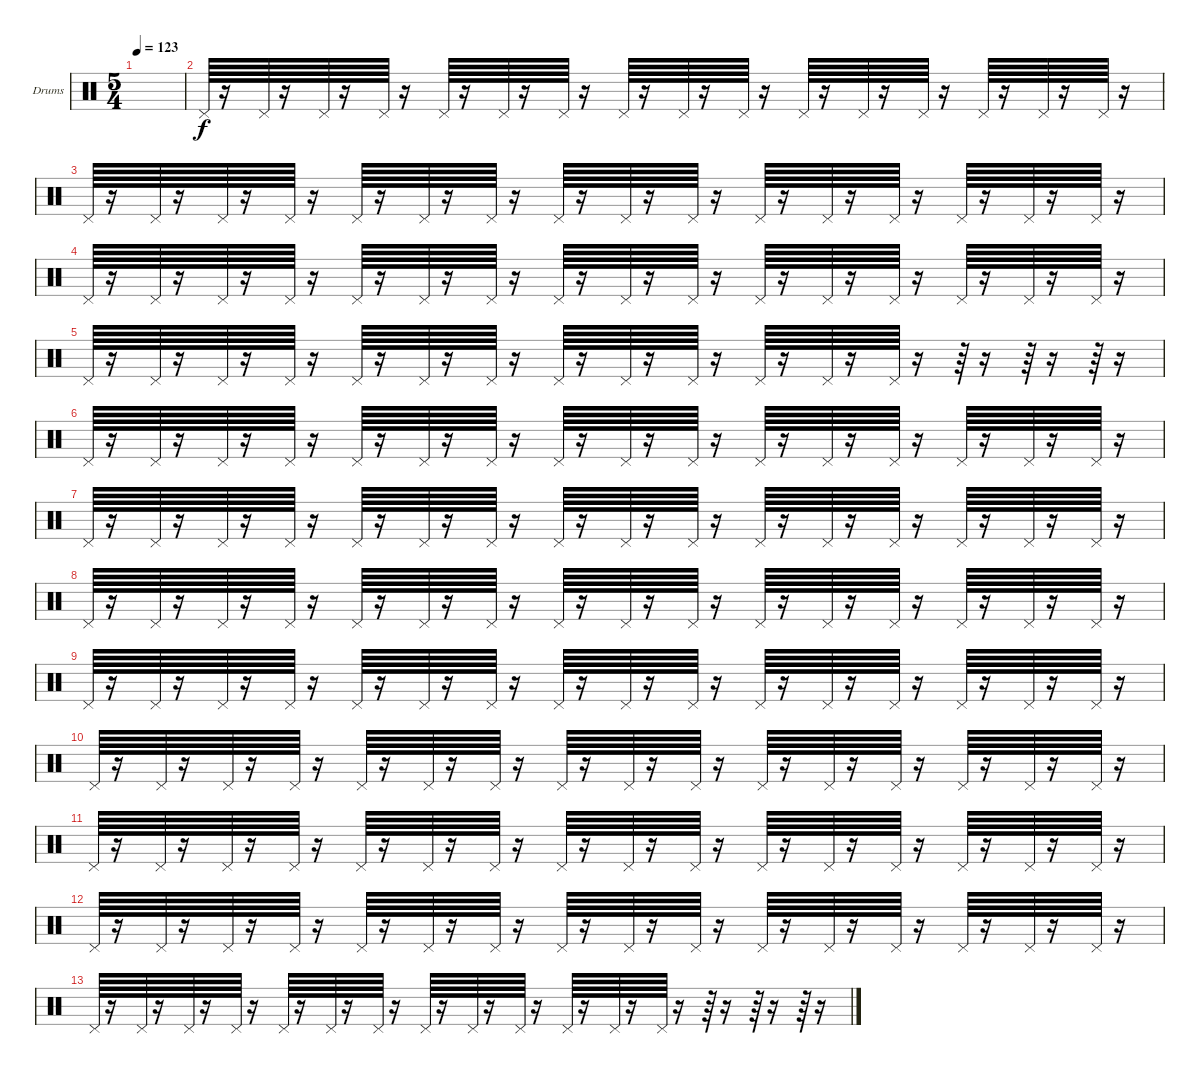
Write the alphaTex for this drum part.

\defaultSystemsLayout 4
\bracketExtendMode groupsimilarinstruments
\firstSystemTrackNameOrientation horizontal
\otherSystemsTrackNameOrientation horizontal
\track ("Drumkit" "Drums") {instrument percussion}
\staff {score}
\articulation defaults
\ts (5 4)
\tempo 123
\clef neutral
\ks c
|
"Pedal Hi-Hat (hit)".64 r.16 "Pedal Hi-Hat (hit)".64 r.16 "Pedal Hi-Hat (hit)".64 r.16 "Pedal Hi-Hat (hit)".64 r.16 "Pedal Hi-Hat (hit)".64 r.16 "Pedal Hi-Hat (hit)".64 r.16 "Pedal Hi-Hat (hit)".64 r.16 "Pedal Hi-Hat (hit)".64 r.16 "Pedal Hi-Hat (hit)".64 r.16 "Pedal Hi-Hat (hit)".64 r.16 "Pedal Hi-Hat (hit)".64 r.16 "Pedal Hi-Hat (hit)".64 r.16 "Pedal Hi-Hat (hit)".64 r.16 "Pedal Hi-Hat (hit)".64 r.16 "Pedal Hi-Hat (hit)".64 r.16 "Pedal Hi-Hat (hit)".64 r.16 |
"Pedal Hi-Hat (hit)".64 r.16 "Pedal Hi-Hat (hit)".64 r.16 "Pedal Hi-Hat (hit)".64 r.16 "Pedal Hi-Hat (hit)".64 r.16 "Pedal Hi-Hat (hit)".64 r.16 "Pedal Hi-Hat (hit)".64 r.16 "Pedal Hi-Hat (hit)".64 r.16 "Pedal Hi-Hat (hit)".64 r.16 "Pedal Hi-Hat (hit)".64 r.16 "Pedal Hi-Hat (hit)".64 r.16 "Pedal Hi-Hat (hit)".64 r.16 "Pedal Hi-Hat (hit)".64 r.16 "Pedal Hi-Hat (hit)".64 r.16 "Pedal Hi-Hat (hit)".64 r.16 "Pedal Hi-Hat (hit)".64 r.16 "Pedal Hi-Hat (hit)".64 r.16 |
"Pedal Hi-Hat (hit)".64 r.16 "Pedal Hi-Hat (hit)".64 r.16 "Pedal Hi-Hat (hit)".64 r.16 "Pedal Hi-Hat (hit)".64 r.16 "Pedal Hi-Hat (hit)".64 r.16 "Pedal Hi-Hat (hit)".64 r.16 "Pedal Hi-Hat (hit)".64 r.16 "Pedal Hi-Hat (hit)".64 r.16 "Pedal Hi-Hat (hit)".64 r.16 "Pedal Hi-Hat (hit)".64 r.16 "Pedal Hi-Hat (hit)".64 r.16 "Pedal Hi-Hat (hit)".64 r.16 "Pedal Hi-Hat (hit)".64 r.16 "Pedal Hi-Hat (hit)".64 r.16 "Pedal Hi-Hat (hit)".64 r.16 "Pedal Hi-Hat (hit)".64 r.16 |
"Pedal Hi-Hat (hit)".64 r.16 "Pedal Hi-Hat (hit)".64 r.16 "Pedal Hi-Hat (hit)".64 r.16 "Pedal Hi-Hat (hit)".64 r.16 "Pedal Hi-Hat (hit)".64 r.16 "Pedal Hi-Hat (hit)".64 r.16 "Pedal Hi-Hat (hit)".64 r.16 "Pedal Hi-Hat (hit)".64 r.16 "Pedal Hi-Hat (hit)".64 r.16 "Pedal Hi-Hat (hit)".64 r.16 "Pedal Hi-Hat (hit)".64 r.16 "Pedal Hi-Hat (hit)".64 r.16 "Pedal Hi-Hat (hit)".64 r.16 r.64 r.16 r.64 r.16 r.64 r.16 |
"Pedal Hi-Hat (hit)".64 r.16 "Pedal Hi-Hat (hit)".64 r.16 "Pedal Hi-Hat (hit)".64 r.16 "Pedal Hi-Hat (hit)".64 r.16 "Pedal Hi-Hat (hit)".64 r.16 "Pedal Hi-Hat (hit)".64 r.16 "Pedal Hi-Hat (hit)".64 r.16 "Pedal Hi-Hat (hit)".64 r.16 "Pedal Hi-Hat (hit)".64 r.16 "Pedal Hi-Hat (hit)".64 r.16 "Pedal Hi-Hat (hit)".64 r.16 "Pedal Hi-Hat (hit)".64 r.16 "Pedal Hi-Hat (hit)".64 r.16 "Pedal Hi-Hat (hit)".64 r.16 "Pedal Hi-Hat (hit)".64 r.16 "Pedal Hi-Hat (hit)".64 r.16 |
"Pedal Hi-Hat (hit)".64 r.16 "Pedal Hi-Hat (hit)".64 r.16 "Pedal Hi-Hat (hit)".64 r.16 "Pedal Hi-Hat (hit)".64 r.16 "Pedal Hi-Hat (hit)".64 r.16 "Pedal Hi-Hat (hit)".64 r.16 "Pedal Hi-Hat (hit)".64 r.16 "Pedal Hi-Hat (hit)".64 r.16 "Pedal Hi-Hat (hit)".64 r.16 "Pedal Hi-Hat (hit)".64 r.16 "Pedal Hi-Hat (hit)".64 r.16 "Pedal Hi-Hat (hit)".64 r.16 "Pedal Hi-Hat (hit)".64 r.16 "Pedal Hi-Hat (hit)".64 r.16 "Pedal Hi-Hat (hit)".64 r.16 "Pedal Hi-Hat (hit)".64 r.16 |
"Pedal Hi-Hat (hit)".64 r.16 "Pedal Hi-Hat (hit)".64 r.16 "Pedal Hi-Hat (hit)".64 r.16 "Pedal Hi-Hat (hit)".64 r.16 "Pedal Hi-Hat (hit)".64 r.16 "Pedal Hi-Hat (hit)".64 r.16 "Pedal Hi-Hat (hit)".64 r.16 "Pedal Hi-Hat (hit)".64 r.16 "Pedal Hi-Hat (hit)".64 r.16 "Pedal Hi-Hat (hit)".64 r.16 "Pedal Hi-Hat (hit)".64 r.16 "Pedal Hi-Hat (hit)".64 r.16 "Pedal Hi-Hat (hit)".64 r.16 "Pedal Hi-Hat (hit)".64 r.16 "Pedal Hi-Hat (hit)".64 r.16 "Pedal Hi-Hat (hit)".64 r.16 |
"Pedal Hi-Hat (hit)".64 r.16 "Pedal Hi-Hat (hit)".64 r.16 "Pedal Hi-Hat (hit)".64 r.16 "Pedal Hi-Hat (hit)".64 r.16 "Pedal Hi-Hat (hit)".64 r.16 "Pedal Hi-Hat (hit)".64 r.16 "Pedal Hi-Hat (hit)".64 r.16 "Pedal Hi-Hat (hit)".64 r.16 "Pedal Hi-Hat (hit)".64 r.16 "Pedal Hi-Hat (hit)".64 r.16 "Pedal Hi-Hat (hit)".64 r.16 "Pedal Hi-Hat (hit)".64 r.16 "Pedal Hi-Hat (hit)".64 r.16 "Pedal Hi-Hat (hit)".64 r.16 "Pedal Hi-Hat (hit)".64 r.16 "Pedal Hi-Hat (hit)".64 r.16 |
"Pedal Hi-Hat (hit)".64 r.16 "Pedal Hi-Hat (hit)".64 r.16 "Pedal Hi-Hat (hit)".64 r.16 "Pedal Hi-Hat (hit)".64 r.16 "Pedal Hi-Hat (hit)".64 r.16 "Pedal Hi-Hat (hit)".64 r.16 "Pedal Hi-Hat (hit)".64 r.16 "Pedal Hi-Hat (hit)".64 r.16 "Pedal Hi-Hat (hit)".64 r.16 "Pedal Hi-Hat (hit)".64 r.16 "Pedal Hi-Hat (hit)".64 r.16 "Pedal Hi-Hat (hit)".64 r.16 "Pedal Hi-Hat (hit)".64 r.16 "Pedal Hi-Hat (hit)".64 r.16 "Pedal Hi-Hat (hit)".64 r.16 "Pedal Hi-Hat (hit)".64 r.16 |
"Pedal Hi-Hat (hit)".64 r.16 "Pedal Hi-Hat (hit)".64 r.16 "Pedal Hi-Hat (hit)".64 r.16 "Pedal Hi-Hat (hit)".64 r.16 "Pedal Hi-Hat (hit)".64 r.16 "Pedal Hi-Hat (hit)".64 r.16 "Pedal Hi-Hat (hit)".64 r.16 "Pedal Hi-Hat (hit)".64 r.16 "Pedal Hi-Hat (hit)".64 r.16 "Pedal Hi-Hat (hit)".64 r.16 "Pedal Hi-Hat (hit)".64 r.16 "Pedal Hi-Hat (hit)".64 r.16 "Pedal Hi-Hat (hit)".64 r.16 "Pedal Hi-Hat (hit)".64 r.16 "Pedal Hi-Hat (hit)".64 r.16 "Pedal Hi-Hat (hit)".64 r.16 |
"Pedal Hi-Hat (hit)".64 r.16 "Pedal Hi-Hat (hit)".64 r.16 "Pedal Hi-Hat (hit)".64 r.16 "Pedal Hi-Hat (hit)".64 r.16 "Pedal Hi-Hat (hit)".64 r.16 "Pedal Hi-Hat (hit)".64 r.16 "Pedal Hi-Hat (hit)".64 r.16 "Pedal Hi-Hat (hit)".64 r.16 "Pedal Hi-Hat (hit)".64 r.16 "Pedal Hi-Hat (hit)".64 r.16 "Pedal Hi-Hat (hit)".64 r.16 "Pedal Hi-Hat (hit)".64 r.16 "Pedal Hi-Hat (hit)".64 r.16 "Pedal Hi-Hat (hit)".64 r.16 "Pedal Hi-Hat (hit)".64 r.16 "Pedal Hi-Hat (hit)".64 r.16 |
"Pedal Hi-Hat (hit)".64 r.16 "Pedal Hi-Hat (hit)".64 r.16 "Pedal Hi-Hat (hit)".64 r.16 "Pedal Hi-Hat (hit)".64 r.16 "Pedal Hi-Hat (hit)".64 r.16 "Pedal Hi-Hat (hit)".64 r.16 "Pedal Hi-Hat (hit)".64 r.16 "Pedal Hi-Hat (hit)".64 r.16 "Pedal Hi-Hat (hit)".64 r.16 "Pedal Hi-Hat (hit)".64 r.16 "Pedal Hi-Hat (hit)".64 r.16 "Pedal Hi-Hat (hit)".64 r.16 "Pedal Hi-Hat (hit)".64 r.16 r.64 r.16 r.64 r.16 r.64 r.16
